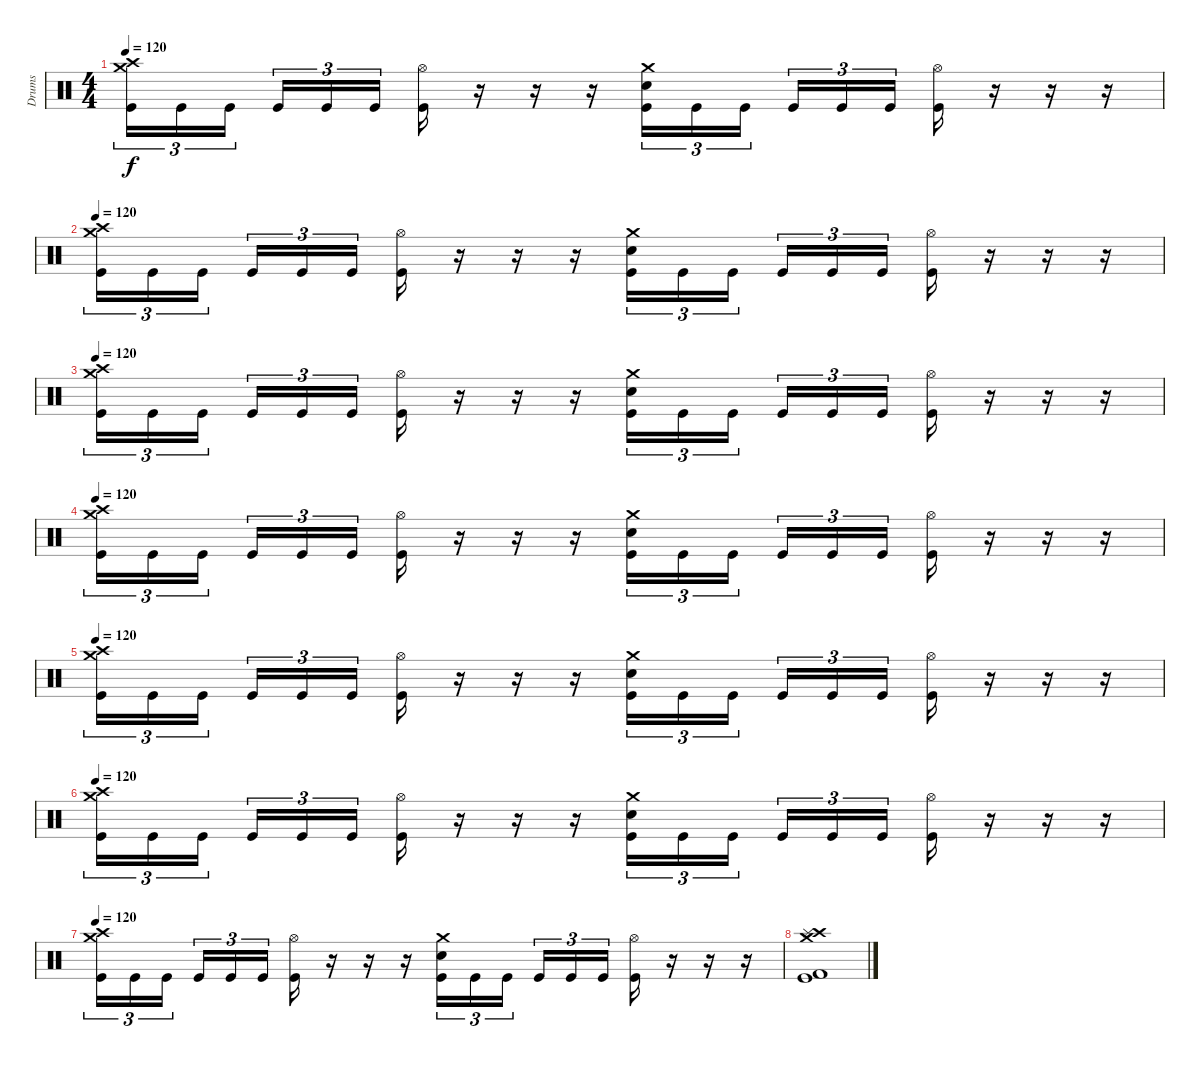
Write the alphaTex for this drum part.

\track ("Drums" "Drums") {instrument percussion}
\staff {score}
\articulation defaults
\ts (4 4)
\tempo 120
\clef neutral
\ks c
("Crash medium (hit)" "Crash high (hit)" "Kick (hit)").16{tu (3 2) dy f} "Kick (hit)".16{tu (3 2)} "Kick (hit)".16{tu (3 2)} "Kick (hit)".16{tu (3 2)} "Kick (hit)".16{tu (3 2)} "Kick (hit)".16{tu (3 2)} ("Hi-Hat (open)" "Kick (hit)").16 r.16 r.16 r.16 ("Crash medium (hit)" "Electric Snare (hit)" "Kick (hit)").16{tu (3 2)} "Kick (hit)".16{tu (3 2)} "Kick (hit)".16{tu (3 2)} "Kick (hit)".16{tu (3 2)} "Kick (hit)".16{tu (3 2)} "Kick (hit)".16{tu (3 2)} ("Hi-Hat (open)" "Kick (hit)").16 r.16 r.16 r.16 |
\tempo 120
("Crash medium (hit)" "Crash high (hit)" "Kick (hit)").16{tu (3 2)} "Kick (hit)".16{tu (3 2)} "Kick (hit)".16{tu (3 2)} "Kick (hit)".16{tu (3 2)} "Kick (hit)".16{tu (3 2)} "Kick (hit)".16{tu (3 2)} ("Hi-Hat (open)" "Kick (hit)").16 r.16 r.16 r.16 ("Crash medium (hit)" "Electric Snare (hit)" "Kick (hit)").16{tu (3 2)} "Kick (hit)".16{tu (3 2)} "Kick (hit)".16{tu (3 2)} "Kick (hit)".16{tu (3 2)} "Kick (hit)".16{tu (3 2)} "Kick (hit)".16{tu (3 2)} ("Hi-Hat (open)" "Kick (hit)").16 r.16 r.16 r.16 |
\tempo 120
("Crash medium (hit)" "Crash high (hit)" "Kick (hit)").16{tu (3 2)} "Kick (hit)".16{tu (3 2)} "Kick (hit)".16{tu (3 2)} "Kick (hit)".16{tu (3 2)} "Kick (hit)".16{tu (3 2)} "Kick (hit)".16{tu (3 2)} ("Hi-Hat (open)" "Kick (hit)").16 r.16 r.16 r.16 ("Crash medium (hit)" "Electric Snare (hit)" "Kick (hit)").16{tu (3 2)} "Kick (hit)".16{tu (3 2)} "Kick (hit)".16{tu (3 2)} "Kick (hit)".16{tu (3 2)} "Kick (hit)".16{tu (3 2)} "Kick (hit)".16{tu (3 2)} ("Hi-Hat (open)" "Kick (hit)").16 r.16 r.16 r.16 |
\tempo 120
("Crash medium (hit)" "Crash high (hit)" "Kick (hit)").16{tu (3 2)} "Kick (hit)".16{tu (3 2)} "Kick (hit)".16{tu (3 2)} "Kick (hit)".16{tu (3 2)} "Kick (hit)".16{tu (3 2)} "Kick (hit)".16{tu (3 2)} ("Hi-Hat (open)" "Kick (hit)").16 r.16 r.16 r.16 ("Crash medium (hit)" "Electric Snare (hit)" "Kick (hit)").16{tu (3 2)} "Kick (hit)".16{tu (3 2)} "Kick (hit)".16{tu (3 2)} "Kick (hit)".16{tu (3 2)} "Kick (hit)".16{tu (3 2)} "Kick (hit)".16{tu (3 2)} ("Hi-Hat (open)" "Kick (hit)").16 r.16 r.16 r.16 |
\tempo 120
("Crash medium (hit)" "Crash high (hit)" "Kick (hit)").16{tu (3 2)} "Kick (hit)".16{tu (3 2)} "Kick (hit)".16{tu (3 2)} "Kick (hit)".16{tu (3 2)} "Kick (hit)".16{tu (3 2)} "Kick (hit)".16{tu (3 2)} ("Hi-Hat (open)" "Kick (hit)").16 r.16 r.16 r.16 ("Crash medium (hit)" "Electric Snare (hit)" "Kick (hit)").16{tu (3 2)} "Kick (hit)".16{tu (3 2)} "Kick (hit)".16{tu (3 2)} "Kick (hit)".16{tu (3 2)} "Kick (hit)".16{tu (3 2)} "Kick (hit)".16{tu (3 2)} ("Hi-Hat (open)" "Kick (hit)").16 r.16 r.16 r.16 |
\tempo 120
("Crash medium (hit)" "Crash high (hit)" "Kick (hit)").16{tu (3 2)} "Kick (hit)".16{tu (3 2)} "Kick (hit)".16{tu (3 2)} "Kick (hit)".16{tu (3 2)} "Kick (hit)".16{tu (3 2)} "Kick (hit)".16{tu (3 2)} ("Hi-Hat (open)" "Kick (hit)").16 r.16 r.16 r.16 ("Crash medium (hit)" "Electric Snare (hit)" "Kick (hit)").16{tu (3 2)} "Kick (hit)".16{tu (3 2)} "Kick (hit)".16{tu (3 2)} "Kick (hit)".16{tu (3 2)} "Kick (hit)".16{tu (3 2)} "Kick (hit)".16{tu (3 2)} ("Hi-Hat (open)" "Kick (hit)").16 r.16 r.16 r.16 |
\tempo 120
("Crash medium (hit)" "Crash high (hit)" "Kick (hit)").16{tu (3 2)} "Kick (hit)".16{tu (3 2)} "Kick (hit)".16{tu (3 2)} "Kick (hit)".16{tu (3 2)} "Kick (hit)".16{tu (3 2)} "Kick (hit)".16{tu (3 2)} ("Hi-Hat (open)" "Kick (hit)").16 r.16 r.16 r.16 ("Crash medium (hit)" "Electric Snare (hit)" "Kick (hit)").16{tu (3 2)} "Kick (hit)".16{tu (3 2)} "Kick (hit)".16{tu (3 2)} "Kick (hit)".16{tu (3 2)} "Kick (hit)".16{tu (3 2)} "Kick (hit)".16{tu (3 2)} ("Hi-Hat (open)" "Kick (hit)").16 r.16 r.16 r.16 |
("Crash medium (hit)" "Crash high (hit)" "Splash (hit)" "Kick (hit) 2" "Kick (hit)").1
